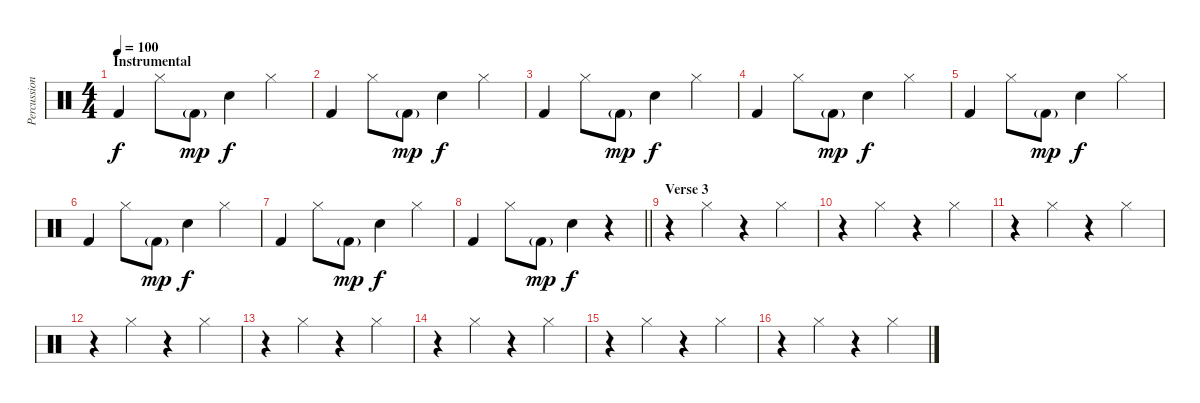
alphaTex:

\track ("Percussion" "Percussion") {instrument percussion}
\staff {score}
\articulation defaults
\ts (4 4)
\section ("" "Instrumental")
\tempo 100
\clef neutral
\ks c "Kick (hit) 2".4{dy f} "Hi-Hat (closed)".8 "Kick (hit) 2"{g}.8{dy mp} "Snare (hit) 2".4{dy f} "Hi-Hat (closed)".4
|
"Kick (hit) 2".4 "Hi-Hat (closed)".8 "Kick (hit) 2"{g}.8{dy mp} "Snare (hit) 2".4{dy f} "Hi-Hat (closed)".4 |
"Kick (hit) 2".4 "Hi-Hat (closed)".8 "Kick (hit) 2"{g}.8{dy mp} "Snare (hit) 2".4{dy f} "Hi-Hat (closed)".4 |
"Kick (hit) 2".4 "Hi-Hat (closed)".8 "Kick (hit) 2"{g}.8{dy mp} "Snare (hit) 2".4{dy f} "Hi-Hat (closed)".4 |
"Kick (hit) 2".4 "Hi-Hat (closed)".8 "Kick (hit) 2"{g}.8{dy mp} "Snare (hit) 2".4{dy f} "Hi-Hat (closed)".4 |
"Kick (hit) 2".4 "Hi-Hat (closed)".8 "Kick (hit) 2"{g}.8{dy mp} "Snare (hit) 2".4{dy f} "Hi-Hat (closed)".4 |
"Kick (hit) 2".4 "Hi-Hat (closed)".8 "Kick (hit) 2"{g}.8{dy mp} "Snare (hit) 2".4{dy f} "Hi-Hat (closed)".4 |
\barLineRight lightlight "Kick (hit) 2".4 "Hi-Hat (closed)".8 "Kick (hit) 2"{g}.8{dy mp} "Snare (hit) 2".4{dy f}
r.4 |
\section ("" "Verse 3")
r.4 "Hi-Hat (closed)".4 r.4 "Hi-Hat (closed)".4 |
r.4 "Hi-Hat (closed)".4 r.4 "Hi-Hat (closed)".4 |
r.4 "Hi-Hat (closed)".4 r.4 "Hi-Hat (closed)".4 |
r.4 "Hi-Hat (closed)".4 r.4 "Hi-Hat (closed)".4 |
r.4 "Hi-Hat (closed)".4 r.4 "Hi-Hat (closed)".4 |
r.4 "Hi-Hat (closed)".4 r.4 "Hi-Hat (closed)".4 |
r.4 "Hi-Hat (closed)".4 r.4 "Hi-Hat (closed)".4 |
r.4 "Hi-Hat (closed)".4 r.4 "Hi-Hat (closed)".4
